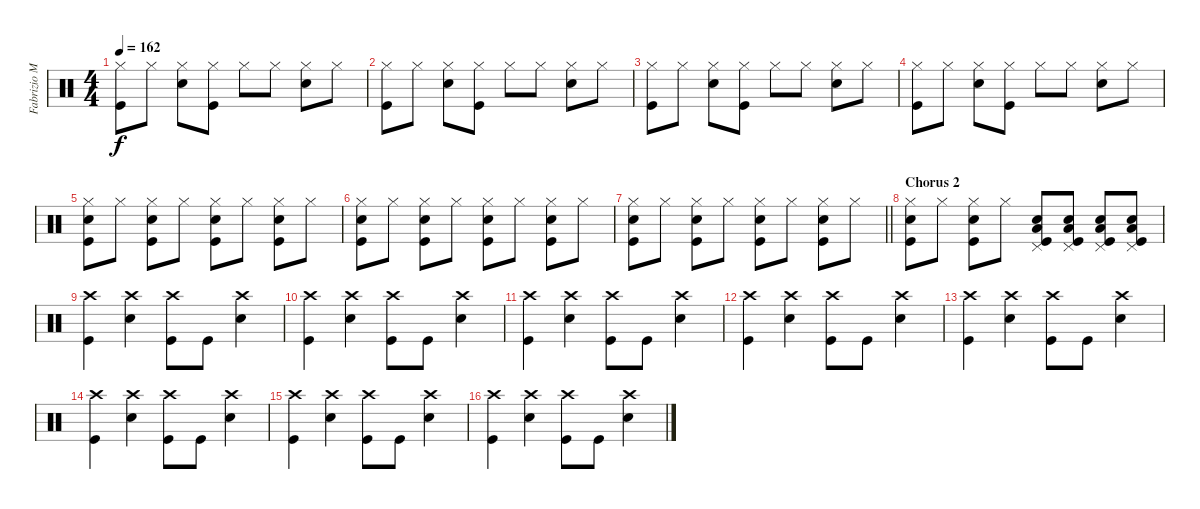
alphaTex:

\track ("Fabrizio Moretti" "Fabrizio M") {instrument percussion}
\staff {score}
\articulation defaults
\ts (4 4)
\tempo 162
\clef neutral
\ks c
("Hi-Hat (closed)" "Kick (hit)").8{dy f} "Hi-Hat (closed)".8 ("Hi-Hat (closed)" "Snare (hit) 2").8 ("Hi-Hat (closed)" "Kick (hit)").8 "Hi-Hat (closed)".8 "Hi-Hat (closed)".8 ("Hi-Hat (closed)" "Snare (hit) 2").8 "Hi-Hat (closed)".8 |
("Hi-Hat (closed)" "Kick (hit)").8 "Hi-Hat (closed)".8 ("Hi-Hat (closed)" "Snare (hit) 2").8 ("Hi-Hat (closed)" "Kick (hit)").8 "Hi-Hat (closed)".8 "Hi-Hat (closed)".8 ("Hi-Hat (closed)" "Snare (hit) 2").8 "Hi-Hat (closed)".8 |
("Hi-Hat (closed)" "Kick (hit)").8 "Hi-Hat (closed)".8 ("Hi-Hat (closed)" "Snare (hit) 2").8 ("Hi-Hat (closed)" "Kick (hit)").8 "Hi-Hat (closed)".8 "Hi-Hat (closed)".8 ("Hi-Hat (closed)" "Snare (hit) 2").8 "Hi-Hat (closed)".8 |
("Hi-Hat (closed)" "Kick (hit)").8 "Hi-Hat (closed)".8 ("Hi-Hat (closed)" "Snare (hit) 2").8 ("Hi-Hat (closed)" "Kick (hit)").8 "Hi-Hat (closed)".8 "Hi-Hat (closed)".8 ("Hi-Hat (closed)" "Snare (hit) 2").8 "Hi-Hat (closed)".8 |
("Hi-Hat (closed)" "Snare (hit) 2" "Kick (hit)").8 "Hi-Hat (closed)".8 ("Hi-Hat (closed)" "Snare (hit) 2" "Kick (hit)").8 "Hi-Hat (closed)".8 ("Hi-Hat (closed)" "Snare (hit) 2" "Kick (hit)").8 "Hi-Hat (closed)".8 ("Hi-Hat (closed)" "Snare (hit) 2" "Kick (hit)").8 "Hi-Hat (closed)".8 |
("Hi-Hat (closed)" "Snare (hit) 2" "Kick (hit)").8 "Hi-Hat (closed)".8 ("Hi-Hat (closed)" "Snare (hit) 2" "Kick (hit)").8 "Hi-Hat (closed)".8 ("Hi-Hat (closed)" "Snare (hit) 2" "Kick (hit)").8 "Hi-Hat (closed)".8 ("Hi-Hat (closed)" "Snare (hit) 2" "Kick (hit)").8 "Hi-Hat (closed)".8 |
\barLineRight lightlight
("Hi-Hat (closed)" "Snare (hit) 2" "Kick (hit)").8 "Hi-Hat (closed)".8 ("Hi-Hat (closed)" "Snare (hit) 2" "Kick (hit)").8 "Hi-Hat (closed)".8 ("Hi-Hat (closed)" "Snare (hit) 2" "Kick (hit)").8 "Hi-Hat (closed)".8 ("Hi-Hat (closed)" "Snare (hit) 2" "Kick (hit)").8 "Hi-Hat (closed)".8 |
\section ("" "Chorus 2")
("Hi-Hat (closed)" "Snare (hit) 2" "Kick (hit)").8 "Hi-Hat (closed)".8 ("Hi-Hat (closed)" "Snare (hit) 2" "Kick (hit)").8 "Hi-Hat (closed)".8 ("Pedal Hi-Hat (hit)" "Snare (hit) 2" "Kick (hit)" "Low Floor Tom (hit)").8 ("Pedal Hi-Hat (hit)" "Snare (hit) 2" "Kick (hit)" "Low Floor Tom (hit)").8 ("Pedal Hi-Hat (hit)" "Snare (hit) 2" "Kick (hit)" "Low Floor Tom (hit)").8 ("Pedal Hi-Hat (hit)" "Snare (hit) 2" "Kick (hit)" "Low Floor Tom (hit)").8 |
("Crash high (hit)" "Kick (hit)").4 ("Crash high (hit)" "Snare (hit) 2").4 ("Crash high (hit)" "Kick (hit)").8 "Kick (hit)".8 ("Crash high (hit)" "Snare (hit) 2").4 |
("Crash high (hit)" "Kick (hit)").4 ("Crash high (hit)" "Snare (hit) 2").4 ("Crash high (hit)" "Kick (hit)").8 "Kick (hit)".8 ("Crash high (hit)" "Snare (hit) 2").4 |
("Crash high (hit)" "Kick (hit)").4 ("Crash high (hit)" "Snare (hit) 2").4 ("Crash high (hit)" "Kick (hit)").8 "Kick (hit)".8 ("Crash high (hit)" "Snare (hit) 2").4 |
("Crash high (hit)" "Kick (hit)").4 ("Crash high (hit)" "Snare (hit) 2").4 ("Crash high (hit)" "Kick (hit)").8 "Kick (hit)".8 ("Crash high (hit)" "Snare (hit) 2").4 |
("Crash high (hit)" "Kick (hit)").4 ("Crash high (hit)" "Snare (hit) 2").4 ("Crash high (hit)" "Kick (hit)").8 "Kick (hit)".8 ("Crash high (hit)" "Snare (hit) 2").4 |
("Crash high (hit)" "Kick (hit)").4 ("Crash high (hit)" "Snare (hit) 2").4 ("Crash high (hit)" "Kick (hit)").8 "Kick (hit)".8 ("Crash high (hit)" "Snare (hit) 2").4 |
("Crash high (hit)" "Kick (hit)").4 ("Crash high (hit)" "Snare (hit) 2").4 ("Crash high (hit)" "Kick (hit)").8 "Kick (hit)".8 ("Crash high (hit)" "Snare (hit) 2").4 |
("Crash high (hit)" "Kick (hit)").4 ("Crash high (hit)" "Snare (hit) 2").4 ("Crash high (hit)" "Kick (hit)").8 "Kick (hit)".8 ("Crash high (hit)" "Snare (hit) 2").4
